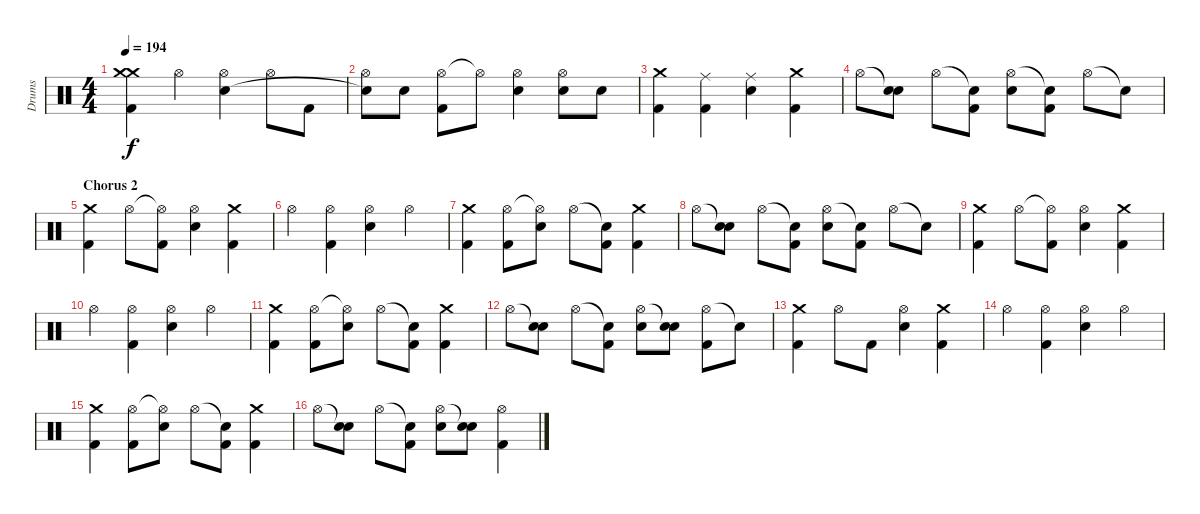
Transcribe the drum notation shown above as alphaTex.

\track ("Drums" "Drums") {instrument percussion}
\staff {score}
\articulation defaults
\ts (4 4)
\tempo 194
\clef neutral
\ks c
("Crash medium (hit)" "Crash medium (hit)" "Kick (hit) 2").4{dy f} "Hi-Hat (open)".4 ("Hi-Hat (open)" "Snare (hit) 2").4 "Hi-Hat (open)".8 "Kick (hit) 2".8 |
("Hi-Hat (open)" "Snare (hit)"{t}).8 "Snare (hit) 2".8 ("Hi-Hat (open)" "Kick (hit) 2").8 "Hi-Hat (open)"{t}.8 ("Hi-Hat (open)" "Snare (hit) 2").4 ("Hi-Hat (open)" "Snare (hit) 2").8 "Snare (hit) 2".8 |
("Crash medium (hit)" "Kick (hit) 2").4 ("Ride (middle)" "Kick (hit) 2").4 ("Ride (middle)" "Snare (hit) 2").4 ("Crash medium (hit)" "Kick (hit) 2").4 |
"Hi-Hat (open)".8 ("Snare (hit)"{t} "Snare (hit) 2").8 "Hi-Hat (open)".8 ("Snare (hit)"{t} "Kick (hit) 2").8 ("Hi-Hat (open)" "Snare (hit) 2").8 ("Snare (hit)"{t} "Kick (hit) 2").8 "Hi-Hat (open)".8 "Snare (hit)"{t}.8 |
\section ("" "Chorus 2")
("Crash medium (hit)" "Kick (hit) 2").4 "Hi-Hat (open)".8 ("Hi-Hat (open)"{t} "Kick (hit) 2").8 ("Hi-Hat (open)" "Snare (hit) 2").4 ("Crash medium (hit)" "Kick (hit) 2").4 |
"Hi-Hat (open)".4 ("Hi-Hat (open)" "Kick (hit) 2").4 ("Hi-Hat (open)" "Snare (hit) 2").4 "Hi-Hat (open)".4 |
("Crash medium (hit)" "Kick (hit) 2").4 ("Hi-Hat (open)" "Kick (hit) 2").8 ("Hi-Hat (open)"{t} "Snare (hit) 2").8 "Hi-Hat (open)".8 ("Snare (hit)"{t} "Kick (hit) 2").8 ("Crash medium (hit)" "Kick (hit) 2").4 |
"Hi-Hat (open)".8 ("Snare (hit)"{t} "Snare (hit) 2").8 "Hi-Hat (open)".8 ("Snare (hit)"{t} "Kick (hit) 2").8 ("Hi-Hat (open)" "Snare (hit) 2").8 ("Snare (hit)"{t} "Kick (hit) 2").8 "Hi-Hat (open)".8 "Snare (hit)"{t}.8 |
("Crash medium (hit)" "Kick (hit) 2").4 "Hi-Hat (open)".8 ("Hi-Hat (open)"{t} "Kick (hit) 2").8 ("Hi-Hat (open)" "Snare (hit) 2").4 ("Crash medium (hit)" "Kick (hit) 2").4 |
"Hi-Hat (open)".4 ("Hi-Hat (open)" "Kick (hit) 2").4 ("Hi-Hat (open)" "Snare (hit) 2").4 "Hi-Hat (open)".4 |
("Crash medium (hit)" "Kick (hit) 2").4 ("Hi-Hat (open)" "Kick (hit) 2").8 ("Hi-Hat (open)"{t} "Snare (hit) 2").8 "Hi-Hat (open)".8 ("Snare (hit)"{t} "Kick (hit) 2").8 ("Crash medium (hit)" "Kick (hit) 2").4 |
"Hi-Hat (open)".8 ("Snare (hit)"{t} "Snare (hit) 2").8 "Hi-Hat (open)".8 ("Snare (hit)"{t} "Kick (hit) 2").8 ("Hi-Hat (open)" "Snare (hit) 2").8 ("Snare (hit)"{t} "Snare (hit) 2").8 ("Hi-Hat (open)" "Kick (hit) 2").8 "Snare (hit)"{t}.8 |
("Crash medium (hit)" "Kick (hit) 2").4 "Hi-Hat (open)".8 "Kick (hit) 2".8 ("Hi-Hat (open)" "Snare (hit) 2").4 ("Crash medium (hit)" "Kick (hit) 2").4 |
"Hi-Hat (open)".4 ("Hi-Hat (open)" "Kick (hit) 2").4 ("Hi-Hat (open)" "Snare (hit) 2").4 "Hi-Hat (open)".4 |
("Crash medium (hit)" "Kick (hit) 2").4 ("Hi-Hat (open)" "Kick (hit) 2").8 ("Hi-Hat (open)"{t} "Snare (hit) 2").8 "Hi-Hat (open)".8 ("Snare (hit)"{t} "Kick (hit) 2").8 ("Crash medium (hit)" "Kick (hit) 2").4 |
"Hi-Hat (open)".8 ("Snare (hit)"{t} "Snare (hit) 2").8 "Hi-Hat (open)".8 ("Snare (hit)"{t} "Kick (hit) 2").8 ("Hi-Hat (open)" "Snare (hit) 2").8 ("Snare (hit)"{t} "Snare (hit) 2").8 ("Hi-Hat (open)" "Kick (hit) 2").4
